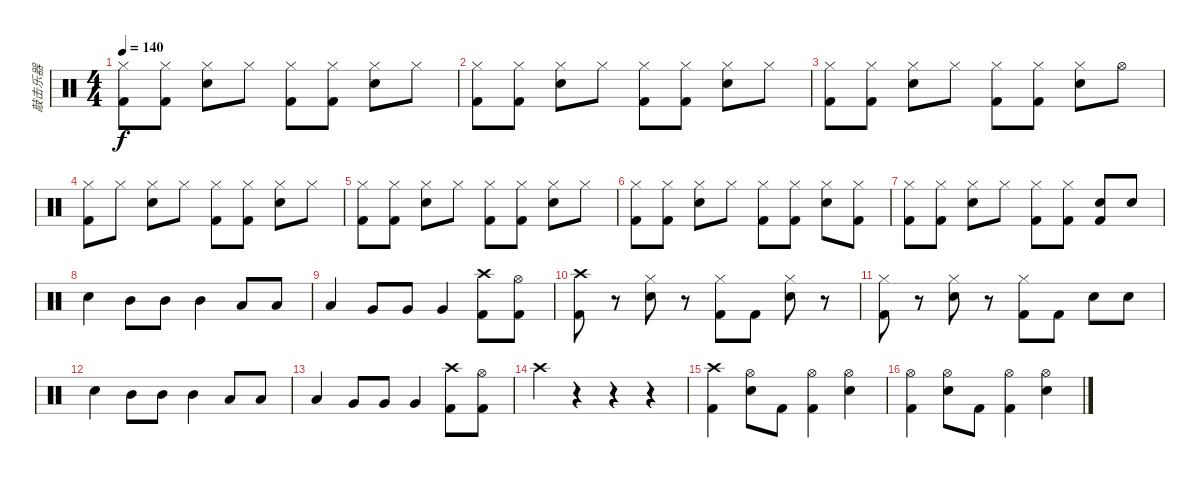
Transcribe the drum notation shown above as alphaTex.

\track ("敲击乐器" "敲击乐器") {instrument percussion}
\staff {score}
\articulation defaults
\ts (4 4)
\tempo 140
\clef neutral
\ks c
("Hi-Hat (closed)" "Kick (hit) 2").8{dy f} ("Hi-Hat (closed)" "Kick (hit) 2").8 ("Hi-Hat (closed)" "Electric Snare (hit)").8 "Hi-Hat (closed)".8 ("Hi-Hat (closed)" "Kick (hit) 2").8 ("Hi-Hat (closed)" "Kick (hit) 2").8 ("Hi-Hat (closed)" "Electric Snare (hit)").8 "Hi-Hat (closed)".8 |
("Hi-Hat (closed)" "Kick (hit) 2").8 ("Hi-Hat (closed)" "Kick (hit) 2").8 ("Hi-Hat (closed)" "Electric Snare (hit)").8 "Hi-Hat (closed)".8 ("Hi-Hat (closed)" "Kick (hit) 2").8 ("Hi-Hat (closed)" "Kick (hit) 2").8 ("Hi-Hat (closed)" "Electric Snare (hit)").8 "Hi-Hat (closed)".8 |
("Hi-Hat (closed)" "Kick (hit) 2").8 ("Hi-Hat (closed)" "Kick (hit) 2").8 ("Hi-Hat (closed)" "Electric Snare (hit)").8 "Hi-Hat (closed)".8 ("Hi-Hat (closed)" "Kick (hit) 2").8 ("Hi-Hat (closed)" "Kick (hit) 2").8 ("Hi-Hat (closed)" "Electric Snare (hit)").8 "Hi-Hat (open)".8 |
("Hi-Hat (closed)" "Kick (hit) 2").8 "Hi-Hat (closed)".8 ("Hi-Hat (closed)" "Electric Snare (hit)").8 "Hi-Hat (closed)".8 ("Hi-Hat (closed)" "Kick (hit) 2").8 ("Hi-Hat (closed)" "Kick (hit) 2").8 ("Hi-Hat (closed)" "Electric Snare (hit)").8 "Hi-Hat (closed)".8 |
("Hi-Hat (closed)" "Kick (hit) 2").8 ("Hi-Hat (closed)" "Kick (hit) 2").8 ("Hi-Hat (closed)" "Electric Snare (hit)").8 "Hi-Hat (closed)".8 ("Hi-Hat (closed)" "Kick (hit) 2").8 ("Hi-Hat (closed)" "Kick (hit) 2").8 ("Hi-Hat (closed)" "Electric Snare (hit)").8 "Hi-Hat (closed)".8 |
("Hi-Hat (closed)" "Kick (hit) 2").8 ("Hi-Hat (closed)" "Kick (hit) 2").8 ("Hi-Hat (closed)" "Electric Snare (hit)").8 "Hi-Hat (closed)".8 ("Hi-Hat (closed)" "Kick (hit) 2").8 ("Hi-Hat (closed)" "Kick (hit) 2").8 ("Hi-Hat (closed)" "Electric Snare (hit)").8 ("Hi-Hat (closed)" "Kick (hit) 2").8 |
("Hi-Hat (closed)" "Kick (hit) 2").8 ("Hi-Hat (closed)" "Kick (hit) 2").8 ("Hi-Hat (closed)" "Electric Snare (hit)").8 "Hi-Hat (closed)".8 ("Hi-Hat (closed)" "Kick (hit) 2").8 ("Hi-Hat (closed)" "Kick (hit) 2").8 ("Electric Snare (hit)" "Kick (hit) 2").8 "Electric Snare (hit)".8 |
"Electric Snare (hit)".4 "Mid Tom (hit)".8 "Mid Tom (hit)".8 "Mid Tom (hit)".4 "Low Tom (hit)".8 "Low Tom (hit)".8 |
"Low Tom (hit)".4 "Very Low Tom (hit)".8 "Very Low Tom (hit)".8 "Very Low Tom (hit)".4 ("Crash high (hit)" "Kick (hit) 2").8 ("Hi-Hat (open)" "Kick (hit) 2").8 |
("Crash high (hit)" "Kick (hit) 2").8 r.8 ("Hi-Hat (closed)" "Electric Snare (hit)").8 r.8 ("Hi-Hat (closed)" "Kick (hit) 2").8 "Kick (hit) 2".8 ("Hi-Hat (closed)" "Electric Snare (hit)").8 r.8 |
("Hi-Hat (closed)" "Kick (hit) 2").8 r.8 ("Hi-Hat (closed)" "Electric Snare (hit)").8 r.8 ("Hi-Hat (closed)" "Kick (hit) 2").8 "Kick (hit) 2".8 "Electric Snare (hit)".8 "Electric Snare (hit)".8 |
"Electric Snare (hit)".4 "Mid Tom (hit)".8 "Mid Tom (hit)".8 "Mid Tom (hit)".4 "Low Tom (hit)".8 "Low Tom (hit)".8 |
"Low Tom (hit)".4 "Very Low Tom (hit)".8 "Very Low Tom (hit)".8 "Very Low Tom (hit)".4 ("Crash high (hit)" "Kick (hit) 2").8 ("Hi-Hat (open)" "Kick (hit) 2").8 |
"Crash high (hit)".4 r.4 r.4 r.4 |
("Crash high (hit)" "Kick (hit) 2").4 ("Hi-Hat (open)" "Electric Snare (hit)").8 "Kick (hit) 2".8 ("Hi-Hat (open)" "Kick (hit) 2").4 ("Hi-Hat (open)" "Electric Snare (hit)").4 |
("Hi-Hat (open)" "Kick (hit) 2").4 ("Hi-Hat (open)" "Electric Snare (hit)").8 "Kick (hit) 2".8 ("Hi-Hat (open)" "Kick (hit) 2").4 ("Hi-Hat (open)" "Electric Snare (hit)").4
